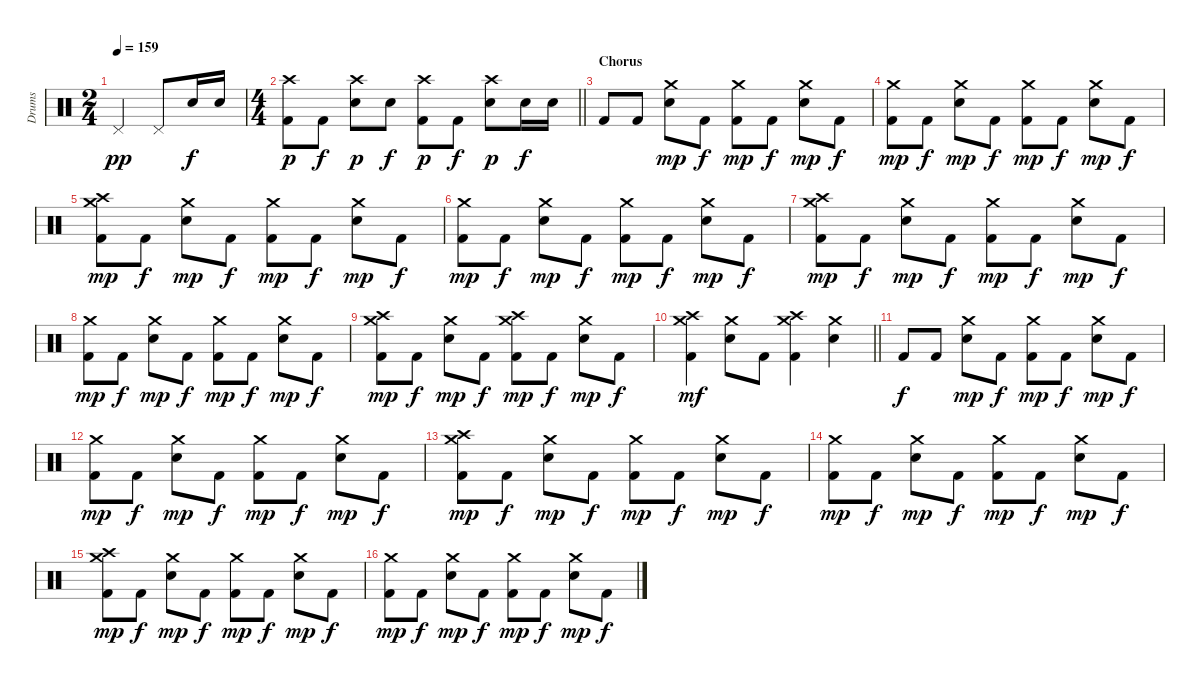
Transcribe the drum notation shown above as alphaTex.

\track ("Drums" "Drums") {instrument percussion}
\staff {score}
\articulation defaults
\ts (2 4)
\tempo 159
\clef neutral
\ks c "Pedal Hi-Hat (hit)".4{dy pp} "Pedal Hi-Hat (hit)".8 "Electric Snare (hit)".16{dy f} "Electric Snare (hit)".16
|
\ts (4 4)
\barLineRight lightlight
("Crash high (hit)" "Kick (hit) 2").8{dy p} "Kick (hit) 2".8{dy f} ("Crash high (hit)" "Electric Snare (hit)").8{dy p} "Electric Snare (hit)".8{dy f} ("Crash high (hit)" "Kick (hit) 2").8{dy p} "Kick (hit) 2".8{dy f} ("Crash high (hit)" "Electric Snare (hit)").8{dy p} "Electric Snare (hit)".16{dy f} "Electric Snare (hit)".16 |
\section ("" "Chorus")
"Kick (hit) 2".8 "Kick (hit) 2".8 ("Crash medium (hit)" "Electric Snare (hit)").8{dy mp} "Kick (hit) 2".8{dy f} ("Crash medium (hit)" "Kick (hit) 2").8{dy mp} "Kick (hit) 2".8{dy f} ("Crash medium (hit)" "Electric Snare (hit)").8{dy mp} "Kick (hit) 2".8{dy f} |
("Crash medium (hit)" "Kick (hit) 2").8{dy mp} "Kick (hit) 2".8{dy f} ("Crash medium (hit)" "Electric Snare (hit)").8{dy mp} "Kick (hit) 2".8{dy f} ("Crash medium (hit)" "Kick (hit) 2").8{dy mp} "Kick (hit) 2".8{dy f} ("Crash medium (hit)" "Electric Snare (hit)").8{dy mp} "Kick (hit) 2".8{dy f} |
("Crash high (hit)" "Crash medium (hit)" "Kick (hit) 2").8{dy mp} "Kick (hit) 2".8{dy f} ("Crash medium (hit)" "Electric Snare (hit)").8{dy mp} "Kick (hit) 2".8{dy f} ("Crash medium (hit)" "Kick (hit) 2").8{dy mp} "Kick (hit) 2".8{dy f} ("Crash medium (hit)" "Electric Snare (hit)").8{dy mp} "Kick (hit) 2".8{dy f} |
("Crash medium (hit)" "Kick (hit) 2").8{dy mp} "Kick (hit) 2".8{dy f} ("Crash medium (hit)" "Electric Snare (hit)").8{dy mp} "Kick (hit) 2".8{dy f} ("Crash medium (hit)" "Kick (hit) 2").8{dy mp} "Kick (hit) 2".8{dy f} ("Crash medium (hit)" "Electric Snare (hit)").8{dy mp} "Kick (hit) 2".8{dy f} |
("Crash high (hit)" "Crash medium (hit)" "Kick (hit) 2").8{dy mp} "Kick (hit) 2".8{dy f} ("Crash medium (hit)" "Electric Snare (hit)").8{dy mp} "Kick (hit) 2".8{dy f} ("Crash medium (hit)" "Kick (hit) 2").8{dy mp} "Kick (hit) 2".8{dy f} ("Crash medium (hit)" "Electric Snare (hit)").8{dy mp} "Kick (hit) 2".8{dy f} |
("Crash medium (hit)" "Kick (hit) 2").8{dy mp} "Kick (hit) 2".8{dy f} ("Crash medium (hit)" "Electric Snare (hit)").8{dy mp} "Kick (hit) 2".8{dy f} ("Crash medium (hit)" "Kick (hit) 2").8{dy mp} "Kick (hit) 2".8{dy f} ("Crash medium (hit)" "Electric Snare (hit)").8{dy mp} "Kick (hit) 2".8{dy f} |
("Crash high (hit)" "Crash medium (hit)" "Kick (hit) 2").8{dy mp} "Kick (hit) 2".8{dy f} ("Crash medium (hit)" "Electric Snare (hit)").8{dy mp} "Kick (hit) 2".8{dy f} ("Crash high (hit)" "Crash medium (hit)" "Kick (hit) 2").8{dy mp} "Kick (hit) 2".8{dy f} ("Crash medium (hit)" "Electric Snare (hit)").8{dy mp} "Kick (hit) 2".8{dy f} |
\barLineRight lightlight
("Crash high (hit)" "Crash medium (hit)" "Kick (hit) 2").4{dy mf} ("Crash medium (hit)" "Electric Snare (hit)").8 "Kick (hit) 2".8 ("Crash high (hit)" "Crash medium (hit)" "Kick (hit) 2").4 ("Crash medium (hit)" "Electric Snare (hit)").4 |
"Kick (hit) 2".8{dy f} "Kick (hit) 2".8 ("Crash medium (hit)" "Electric Snare (hit)").8{dy mp} "Kick (hit) 2".8{dy f} ("Crash medium (hit)" "Kick (hit) 2").8{dy mp} "Kick (hit) 2".8{dy f} ("Crash medium (hit)" "Electric Snare (hit)").8{dy mp} "Kick (hit) 2".8{dy f} |
("Crash medium (hit)" "Kick (hit) 2").8{dy mp} "Kick (hit) 2".8{dy f} ("Crash medium (hit)" "Electric Snare (hit)").8{dy mp} "Kick (hit) 2".8{dy f} ("Crash medium (hit)" "Kick (hit) 2").8{dy mp} "Kick (hit) 2".8{dy f} ("Crash medium (hit)" "Electric Snare (hit)").8{dy mp} "Kick (hit) 2".8{dy f} |
("Crash high (hit)" "Crash medium (hit)" "Kick (hit) 2").8{dy mp} "Kick (hit) 2".8{dy f} ("Crash medium (hit)" "Electric Snare (hit)").8{dy mp} "Kick (hit) 2".8{dy f} ("Crash medium (hit)" "Kick (hit) 2").8{dy mp} "Kick (hit) 2".8{dy f} ("Crash medium (hit)" "Electric Snare (hit)").8{dy mp} "Kick (hit) 2".8{dy f} |
("Crash medium (hit)" "Kick (hit) 2").8{dy mp} "Kick (hit) 2".8{dy f} ("Crash medium (hit)" "Electric Snare (hit)").8{dy mp} "Kick (hit) 2".8{dy f} ("Crash medium (hit)" "Kick (hit) 2").8{dy mp} "Kick (hit) 2".8{dy f} ("Crash medium (hit)" "Electric Snare (hit)").8{dy mp} "Kick (hit) 2".8{dy f} |
("Crash high (hit)" "Crash medium (hit)" "Kick (hit) 2").8{dy mp} "Kick (hit) 2".8{dy f} ("Crash medium (hit)" "Electric Snare (hit)").8{dy mp} "Kick (hit) 2".8{dy f} ("Crash medium (hit)" "Kick (hit) 2").8{dy mp} "Kick (hit) 2".8{dy f} ("Crash medium (hit)" "Electric Snare (hit)").8{dy mp} "Kick (hit) 2".8{dy f} |
("Crash medium (hit)" "Kick (hit) 2").8{dy mp} "Kick (hit) 2".8{dy f} ("Crash medium (hit)" "Electric Snare (hit)").8{dy mp} "Kick (hit) 2".8{dy f} ("Crash medium (hit)" "Kick (hit) 2").8{dy mp} "Kick (hit) 2".8{dy f} ("Crash medium (hit)" "Electric Snare (hit)").8{dy mp} "Kick (hit) 2".8{dy f}
